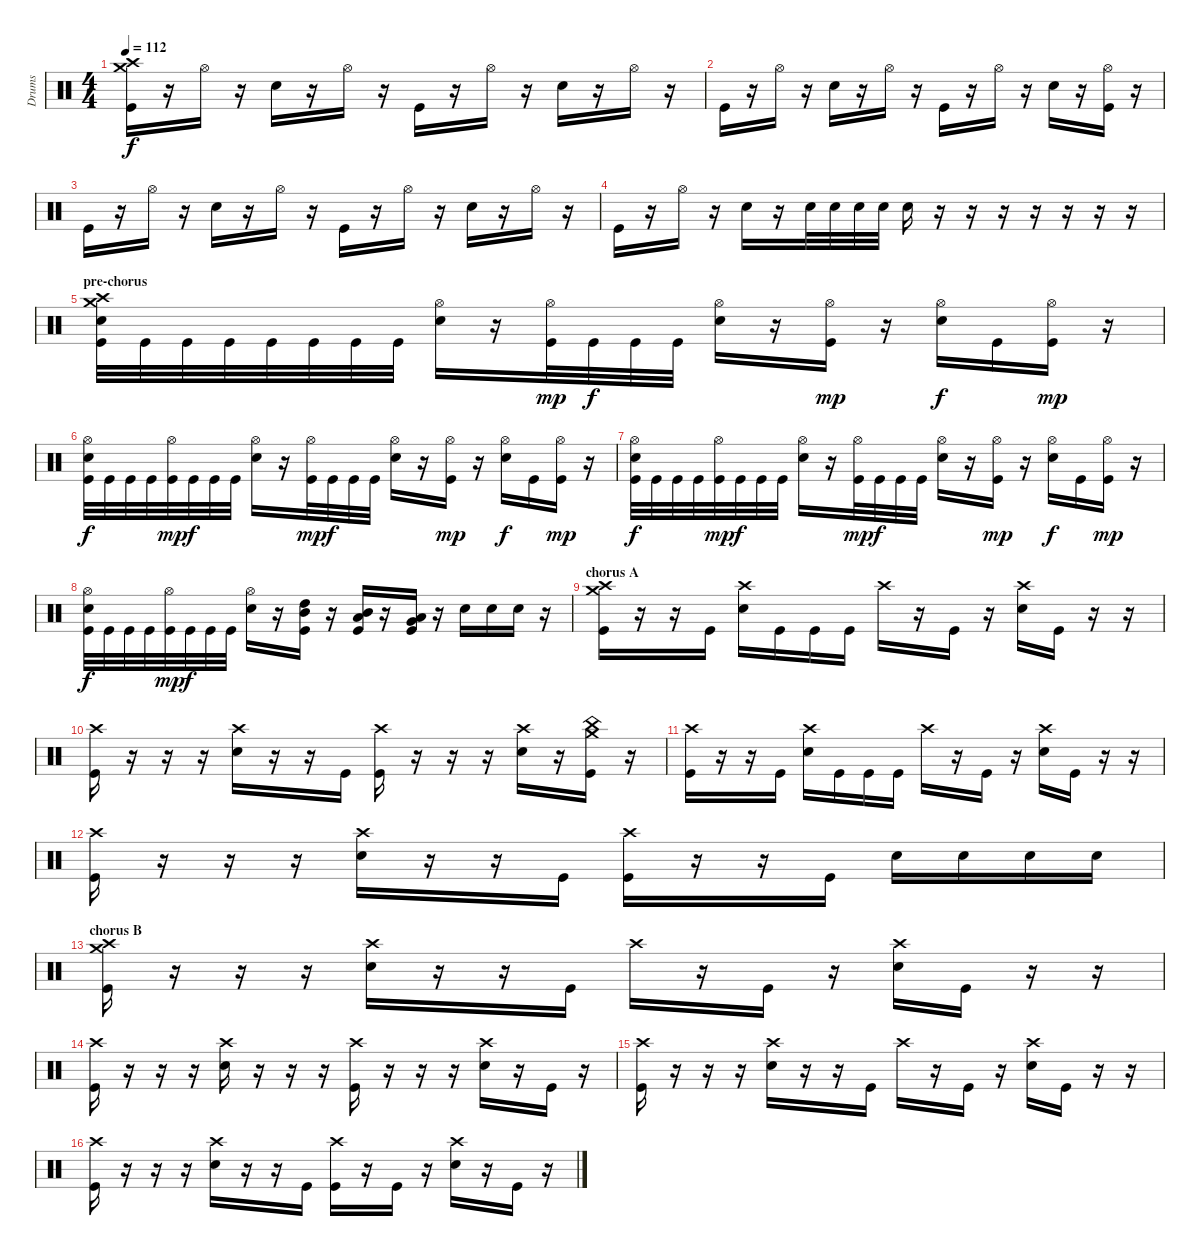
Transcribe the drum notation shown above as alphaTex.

\track ("Drums" "Drums") {instrument percussion}
\staff {score}
\articulation defaults
\ts (4 4)
\tempo 112
\clef neutral
\ks c
("Crash high (hit)" "Crash medium (hit)" "Kick (hit)").16{dy f} r.16 "Hi-Hat (open)".16 r.16 "Snare (hit) 2".16 r.16 "Hi-Hat (open)".16 r.16 "Kick (hit)".16 r.16 "Hi-Hat (open)".16 r.16 "Snare (hit) 2".16 r.16 "Hi-Hat (open)".16 r.16 |
"Kick (hit)".16 r.16 "Hi-Hat (open)".16 r.16 "Snare (hit) 2".16 r.16 "Hi-Hat (open)".16 r.16 "Kick (hit)".16 r.16 "Hi-Hat (open)".16 r.16 "Snare (hit) 2".16 r.16 ("Hi-Hat (open)" "Kick (hit)").16 r.16 |
"Kick (hit)".16 r.16 "Hi-Hat (open)".16 r.16 "Snare (hit) 2".16 r.16 "Hi-Hat (open)".16 r.16 "Kick (hit)".16 r.16 "Hi-Hat (open)".16 r.16 "Snare (hit) 2".16 r.16 "Hi-Hat (open)".16 r.16 |
"Kick (hit)".16 r.16 "Hi-Hat (open)".16 r.16 "Snare (hit) 2".16 r.16 "Snare (hit) 2".32 "Snare (hit) 2".32 "Snare (hit) 2".32 "Snare (hit) 2".32 "Snare (hit) 2".16 r.16 r.16 r.16 r.16 r.16 r.16 r.16 |
\section ("" "pre-chorus")
("Crash high (hit)" "Crash medium (hit)" "Snare (hit) 2" "Kick (hit)").32 "Kick (hit)".32 "Kick (hit)".32 "Kick (hit)".32 "Kick (hit)".32 "Kick (hit)".32 "Kick (hit)".32 "Kick (hit)".32 ("Hi-Hat (open)" "Snare (hit) 2").16 r.16 ("Hi-Hat (open)" "Kick (hit)").32{dy mp} "Kick (hit)".32{dy f} "Kick (hit)".32 "Kick (hit)".32 ("Hi-Hat (open)" "Snare (hit) 2").16 r.16 ("Hi-Hat (open)" "Kick (hit)").16{dy mp} r.16 ("Hi-Hat (open)" "Snare (hit) 2").16{dy f} "Kick (hit)".16 ("Hi-Hat (open)" "Kick (hit)").16{dy mp} r.16 |
("Hi-Hat (open)" "Snare (hit) 2" "Kick (hit)").32{dy f} "Kick (hit)".32 "Kick (hit)".32 "Kick (hit)".32 ("Hi-Hat (open)" "Kick (hit)").32{dy mp} "Kick (hit)".32{dy f} "Kick (hit)".32 "Kick (hit)".32 ("Hi-Hat (open)" "Snare (hit) 2").16 r.16 ("Hi-Hat (open)" "Kick (hit)").32{dy mp} "Kick (hit)".32{dy f} "Kick (hit)".32 "Kick (hit)".32 ("Hi-Hat (open)" "Snare (hit) 2").16 r.16 ("Hi-Hat (open)" "Kick (hit)").16{dy mp} r.16 ("Hi-Hat (open)" "Snare (hit) 2").16{dy f} "Kick (hit)".16 ("Hi-Hat (open)" "Kick (hit)").16{dy mp} r.16 |
("Hi-Hat (open)" "Snare (hit) 2" "Kick (hit)").32{dy f} "Kick (hit)".32 "Kick (hit)".32 "Kick (hit)".32 ("Hi-Hat (open)" "Kick (hit)").32{dy mp} "Kick (hit)".32{dy f} "Kick (hit)".32 "Kick (hit)".32 ("Hi-Hat (open)" "Snare (hit) 2").16 r.16 ("Hi-Hat (open)" "Kick (hit)").32{dy mp} "Kick (hit)".32{dy f} "Kick (hit)".32 "Kick (hit)".32 ("Hi-Hat (open)" "Snare (hit) 2").16 r.16 ("Hi-Hat (open)" "Kick (hit)").16{dy mp} r.16 ("Hi-Hat (open)" "Snare (hit) 2").16{dy f} "Kick (hit)".16 ("Hi-Hat (open)" "Kick (hit)").16{dy mp} r.16 |
("Hi-Hat (open)" "Snare (hit) 2" "Kick (hit)").32{dy f} "Kick (hit)".32 "Kick (hit)".32 "Kick (hit)".32 ("Hi-Hat (open)" "Kick (hit)").32{dy mp} "Kick (hit)".32{dy f} "Kick (hit)".32 "Kick (hit)".32 ("Hi-Hat (open)" "Snare (hit) 2").16 r.16 ("High Tom (hit)" "Mid Tom (hit)" "Kick (hit)").16{bu 60} r.16 ("Mid Tom (hit)" "Low Tom (hit)" "Kick (hit)").16{bu 60} r.16 ("Low Tom (hit)" "Very Low Tom (hit)" "Kick (hit)").16{bu 60} r.16 "Snare (hit) 2".16 "Snare (hit) 2".16 "Snare (hit) 2".16 r.16 |
\section ("" "chorus A")
("Crash high (hit)" "Crash medium (hit)" "Kick (hit)").16 r.16 r.16 "Kick (hit)".16 ("Crash high (hit)" "Snare (hit) 2").16 "Kick (hit)".16 "Kick (hit)".16 "Kick (hit)".16 "Crash high (hit)".16 r.16 "Kick (hit)".16 r.16 ("Crash high (hit)" "Snare (hit) 2").16 "Kick (hit)".16 r.16 r.16 |
("Crash high (hit)" "Kick (hit)").16 r.16 r.16 r.16 ("Crash high (hit)" "Snare (hit) 2").16 r.16 r.16 "Kick (hit)".16 ("Crash high (hit)" "Kick (hit)").16 r.16 r.16 r.16 ("Crash high (hit)" "Snare (hit) 2").16 r.16 ("Crash medium (hit)" "China (hit)" "Kick (hit)").16 r.16 |
("Crash high (hit)" "Kick (hit)").16 r.16 r.16 "Kick (hit)".16 ("Crash high (hit)" "Snare (hit) 2").16 "Kick (hit)".16 "Kick (hit)".16 "Kick (hit)".16 "Crash high (hit)".16 r.16 "Kick (hit)".16 r.16 ("Crash high (hit)" "Snare (hit) 2").16 "Kick (hit)".16 r.16 r.16 |
("Crash high (hit)" "Kick (hit)").16 r.16 r.16 r.16 ("Crash high (hit)" "Snare (hit) 2").16 r.16 r.16 "Kick (hit)".16 ("Crash high (hit)" "Kick (hit)").16 r.16 r.16 "Kick (hit)".16 "Snare (hit) 2".16 "Snare (hit) 2".16 "Snare (hit) 2".16 "Snare (hit) 2".16 |
\section ("" "chorus B")
("Crash high (hit)" "Crash medium (hit)" "Kick (hit)").16 r.16 r.16 r.16 ("Crash high (hit)" "Snare (hit) 2").16 r.16 r.16 "Kick (hit)".16 "Crash high (hit)".16 r.16 "Kick (hit)".16 r.16 ("Crash high (hit)" "Snare (hit) 2").16 "Kick (hit)".16 r.16 r.16 |
("Crash high (hit)" "Kick (hit)").16 r.16 r.16 r.16 ("Crash high (hit)" "Snare (hit) 2").16 r.16 r.16 r.16 ("Crash high (hit)" "Kick (hit)").16 r.16 r.16 r.16 ("Crash high (hit)" "Snare (hit) 2").16 r.16 "Kick (hit)".16 r.16 |
("Crash high (hit)" "Kick (hit)").16 r.16 r.16 r.16 ("Crash high (hit)" "Snare (hit) 2").16 r.16 r.16 "Kick (hit)".16 "Crash high (hit)".16 r.16 "Kick (hit)".16 r.16 ("Crash high (hit)" "Snare (hit) 2").16 "Kick (hit)".16 r.16 r.16 |
("Crash high (hit)" "Kick (hit)").16 r.16 r.16 r.16 ("Crash high (hit)" "Snare (hit) 2").16 r.16 r.16 "Kick (hit)".16 ("Crash high (hit)" "Kick (hit)").16 r.16 "Kick (hit)".16 r.16 ("Crash high (hit)" "Snare (hit) 2").16 r.16 "Kick (hit)".16 r.16
